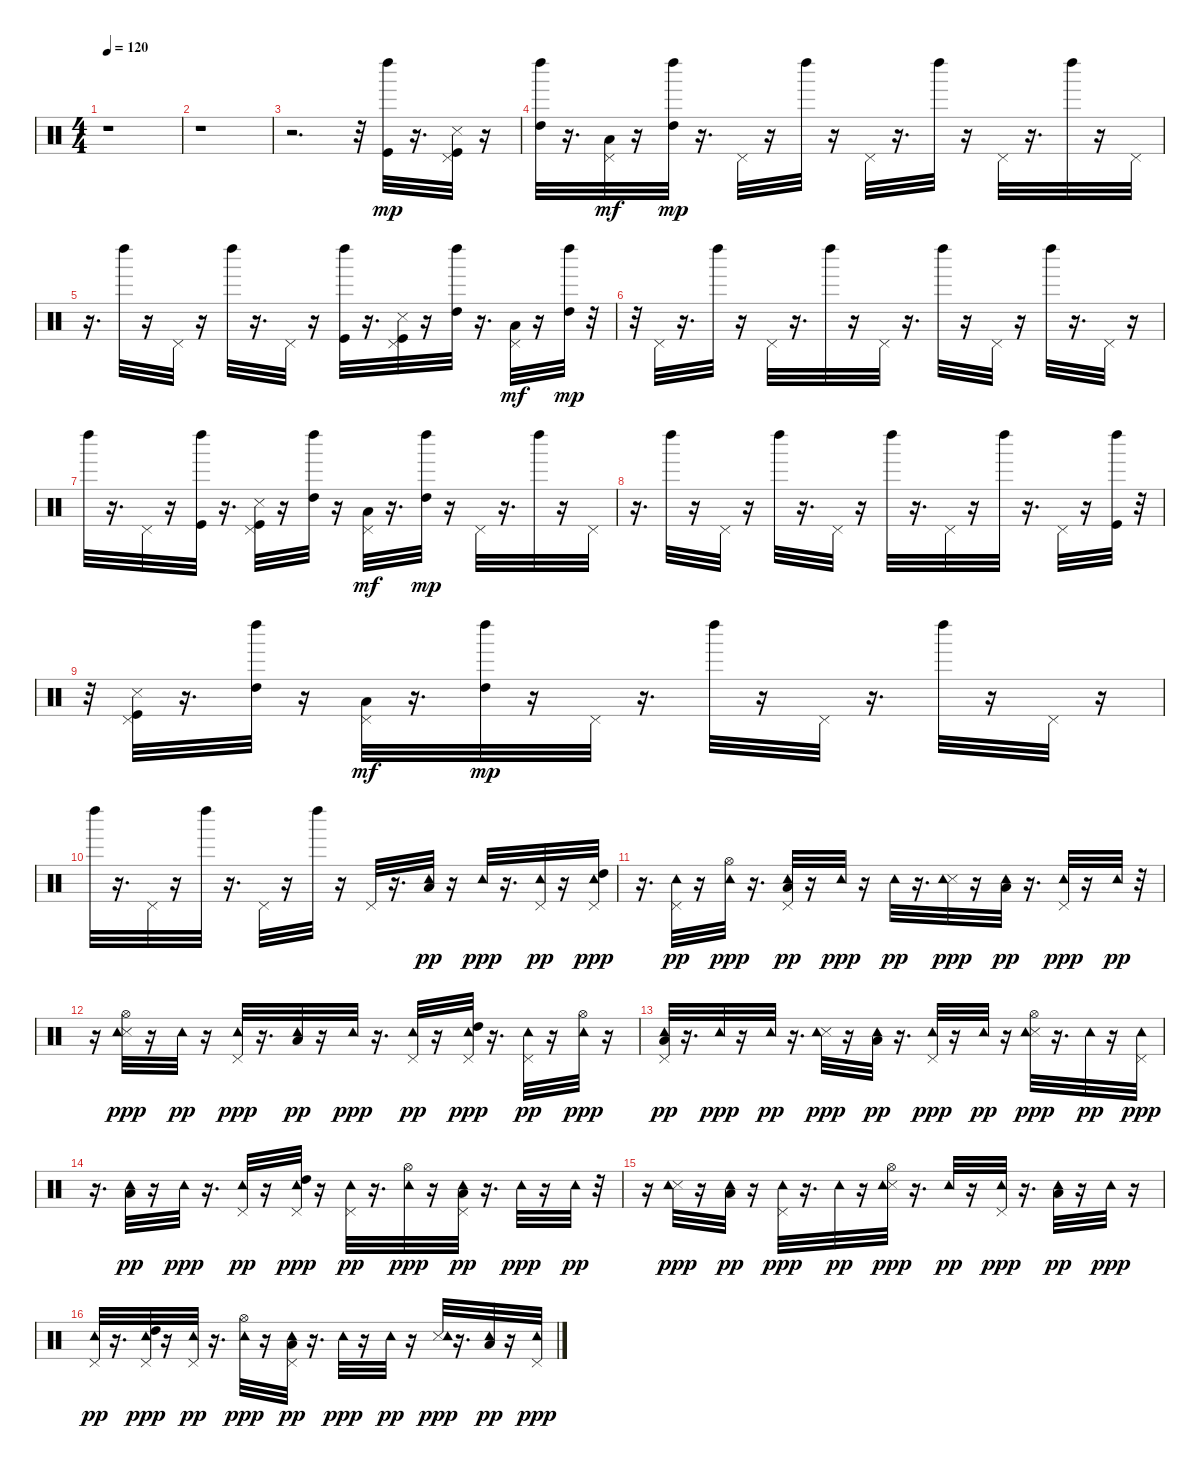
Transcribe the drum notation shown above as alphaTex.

\track "" {instrument percussion}
\staff {score}
\articulation defaults
\ts (4 4)
\tempo 120
\clef neutral
\ks c
r.1{dy mp} |
r.1 |
r.2{d} r.32 ("Kick (hit)" "Left Maraca (hit)").32{volume 10 balance 8} r.16{d} ("Kick (hit)" "Pedal Hi-Hat (hit)" "Snare (side stick) 3").32 r.16 |
("High Tom (hit)" "Left Maraca (hit)").32 r.16{d} ("Pedal Hi-Hat (hit)" "Low Floor Tom (hit)").32{dy mf} r.16 ("High Tom (hit)" "Left Maraca (hit)").32{dy mp} r.16{d} "Pedal Hi-Hat (hit)".32 r.16 "Left Maraca (hit)".32 r.16 "Pedal Hi-Hat (hit)".32 r.16{d} "Left Maraca (hit)".32 r.16 "Pedal Hi-Hat (hit)".32 r.16{d} "Left Maraca (hit)".32 r.16 "Pedal Hi-Hat (hit)".32 |
r.16{d} "Left Maraca (hit)".32 r.16 "Pedal Hi-Hat (hit)".32 r.16 "Left Maraca (hit)".32 r.16{d} "Pedal Hi-Hat (hit)".32 r.16 ("Kick (hit)" "Left Maraca (hit)").32 r.16{d} ("Kick (hit)" "Pedal Hi-Hat (hit)" "Snare (side stick) 3").32 r.16 ("High Tom (hit)" "Left Maraca (hit)").32 r.16{d} ("Pedal Hi-Hat (hit)" "Low Floor Tom (hit)").32{dy mf} r.16 ("High Tom (hit)" "Left Maraca (hit)").32{dy mp} r.32 |
r.32 "Pedal Hi-Hat (hit)".32 r.16{d} "Left Maraca (hit)".32 r.16 "Pedal Hi-Hat (hit)".32 r.16{d} "Left Maraca (hit)".32 r.16 "Pedal Hi-Hat (hit)".32 r.16{d} "Left Maraca (hit)".32 r.16 "Pedal Hi-Hat (hit)".32 r.16 "Left Maraca (hit)".32 r.16{d} "Pedal Hi-Hat (hit)".32 r.16 |
"Left Maraca (hit)".32 r.16{d} "Pedal Hi-Hat (hit)".32 r.16 ("Kick (hit)" "Left Maraca (hit)").32 r.16{d} ("Kick (hit)" "Pedal Hi-Hat (hit)" "Snare (side stick) 3").32 r.16 ("High Tom (hit)" "Left Maraca (hit)").32 r.16 ("Pedal Hi-Hat (hit)" "Low Floor Tom (hit)").32{dy mf} r.16{d} ("High Tom (hit)" "Left Maraca (hit)").32{dy mp} r.16 "Pedal Hi-Hat (hit)".32 r.16{d} "Left Maraca (hit)".32 r.16 "Pedal Hi-Hat (hit)".32 |
r.16{d} "Left Maraca (hit)".32 r.16 "Pedal Hi-Hat (hit)".32 r.16 "Left Maraca (hit)".32 r.16{d} "Pedal Hi-Hat (hit)".32 r.16 "Left Maraca (hit)".32 r.16{d} "Pedal Hi-Hat (hit)".32 r.16 "Left Maraca (hit)".32 r.16{d} "Pedal Hi-Hat (hit)".32 r.16 ("Kick (hit)" "Left Maraca (hit)").32 r.32 |
r.32 ("Kick (hit)" "Pedal Hi-Hat (hit)" "Snare (side stick) 3").32 r.16{d} ("High Tom (hit)" "Left Maraca (hit)").32 r.16 ("Pedal Hi-Hat (hit)" "Low Floor Tom (hit)").32{dy mf} r.16{d} ("High Tom (hit)" "Left Maraca (hit)").32{dy mp} r.16 "Pedal Hi-Hat (hit)".32 r.16{d} "Left Maraca (hit)".32 r.16 "Pedal Hi-Hat (hit)".32 r.16{d} "Left Maraca (hit)".32 r.16 "Pedal Hi-Hat (hit)".32 r.16 |
"Left Maraca (hit)".32 r.16{d} "Pedal Hi-Hat (hit)".32 r.16 "Left Maraca (hit)".32 r.16{d} "Pedal Hi-Hat (hit)".32 r.16 "Left Maraca (hit)".32 r.16 "Pedal Hi-Hat (hit)".32 r.16{d} ("Low Floor Tom (hit)" "Tambourine (hit)").32{dy pp} r.16 "Tambourine (hit)".32{dy ppp} r.16{d} ("Pedal Hi-Hat (hit)" "Tambourine (hit)").32{dy pp} r.16 ("Pedal Hi-Hat (hit)" "High Tom (hit)" "Tambourine (hit)").32{dy ppp} |
r.16{d} ("Pedal Hi-Hat (hit)" "Tambourine (hit)").32{dy pp} r.16 ("Hi-Hat (open)" "Tambourine (hit)").32{dy ppp} r.16{d} ("Pedal Hi-Hat (hit)" "Low Tom (hit)" "Tambourine (hit)").32{dy pp} r.16 "Tambourine (hit)".32{dy ppp} r.16 "Tambourine (hit)".32{dy pp} r.16{d} ("Snare (side stick) 3" "Tambourine (hit)").32{dy ppp} r.16 ("Low Floor Tom (hit)" "Tambourine (hit)").32{dy pp} r.16{d} ("Pedal Hi-Hat (hit)" "Tambourine (hit)").32{dy ppp} r.16 "Tambourine (hit)".32{dy pp} r.32 |
r.16 ("Hi-Hat (open)" "Snare (side stick) 3" "Tambourine (hit)").32{dy ppp} r.16 "Tambourine (hit)".32{dy pp} r.16 ("Pedal Hi-Hat (hit)" "Tambourine (hit)").32{dy ppp} r.16{d} ("Low Floor Tom (hit)" "Tambourine (hit)").32{dy pp} r.16 "Tambourine (hit)".32{dy ppp} r.16{d} ("Pedal Hi-Hat (hit)" "Tambourine (hit)").32{dy pp} r.16 ("Pedal Hi-Hat (hit)" "High Tom (hit)" "Tambourine (hit)").32{dy ppp} r.16{d} ("Pedal Hi-Hat (hit)" "Tambourine (hit)").32{dy pp} r.16 ("Hi-Hat (open)" "Tambourine (hit)").32{dy ppp} r.16 |
("Pedal Hi-Hat (hit)" "Low Tom (hit)" "Tambourine (hit)").32{dy pp} r.16{d} "Tambourine (hit)".32{dy ppp} r.16 "Tambourine (hit)".32{dy pp} r.16{d} ("Snare (side stick) 3" "Tambourine (hit)").32{dy ppp} r.16 ("Low Floor Tom (hit)" "Tambourine (hit)").32{dy pp} r.16{d} ("Pedal Hi-Hat (hit)" "Tambourine (hit)").32{dy ppp} r.16 "Tambourine (hit)".32{dy pp} r.16 ("Hi-Hat (open)" "Snare (side stick) 3" "Tambourine (hit)").32{dy ppp} r.16{d} "Tambourine (hit)".32{dy pp} r.16 ("Pedal Hi-Hat (hit)" "Tambourine (hit)").32{dy ppp} |
r.16{d} ("Low Floor Tom (hit)" "Tambourine (hit)").32{dy pp} r.16 "Tambourine (hit)".32{dy ppp} r.16{d} ("Pedal Hi-Hat (hit)" "Tambourine (hit)").32{dy pp} r.16 ("Pedal Hi-Hat (hit)" "High Tom (hit)" "Tambourine (hit)").32{dy ppp} r.16 ("Pedal Hi-Hat (hit)" "Tambourine (hit)").32{dy pp} r.16{d} ("Hi-Hat (open)" "Tambourine (hit)").32{dy ppp} r.16 ("Pedal Hi-Hat (hit)" "Low Tom (hit)" "Tambourine (hit)").32{dy pp} r.16{d} "Tambourine (hit)".32{dy ppp} r.16 "Tambourine (hit)".32{dy pp} r.32 |
r.16 ("Snare (side stick) 3" "Tambourine (hit)").32{dy ppp} r.16 ("Low Floor Tom (hit)" "Tambourine (hit)").32{dy pp} r.16 ("Pedal Hi-Hat (hit)" "Tambourine (hit)").32{dy ppp} r.16{d} "Tambourine (hit)".32{dy pp} r.16 ("Hi-Hat (open)" "Snare (side stick) 3" "Tambourine (hit)").32{dy ppp} r.16{d} "Tambourine (hit)".32{dy pp} r.16 ("Pedal Hi-Hat (hit)" "Tambourine (hit)").32{dy ppp} r.16{d} ("Low Floor Tom (hit)" "Tambourine (hit)").32{dy pp} r.16 "Tambourine (hit)".32{dy ppp} r.16 |
("Pedal Hi-Hat (hit)" "Tambourine (hit)").32{dy pp} r.16{d} ("Pedal Hi-Hat (hit)" "High Tom (hit)" "Tambourine (hit)").32{dy ppp} r.16 ("Pedal Hi-Hat (hit)" "Tambourine (hit)").32{dy pp} r.16{d} ("Hi-Hat (open)" "Tambourine (hit)").32{dy ppp} r.16 ("Pedal Hi-Hat (hit)" "Low Tom (hit)" "Tambourine (hit)").32{dy pp} r.16{d} "Tambourine (hit)".32{dy ppp} r.16 "Tambourine (hit)".32{dy pp} r.16 ("Snare (side stick) 3" "Tambourine (hit)").32{dy ppp} r.16{d} ("Low Floor Tom (hit)" "Tambourine (hit)").32{dy pp} r.16 ("Pedal Hi-Hat (hit)" "Tambourine (hit)").32{dy ppp}
